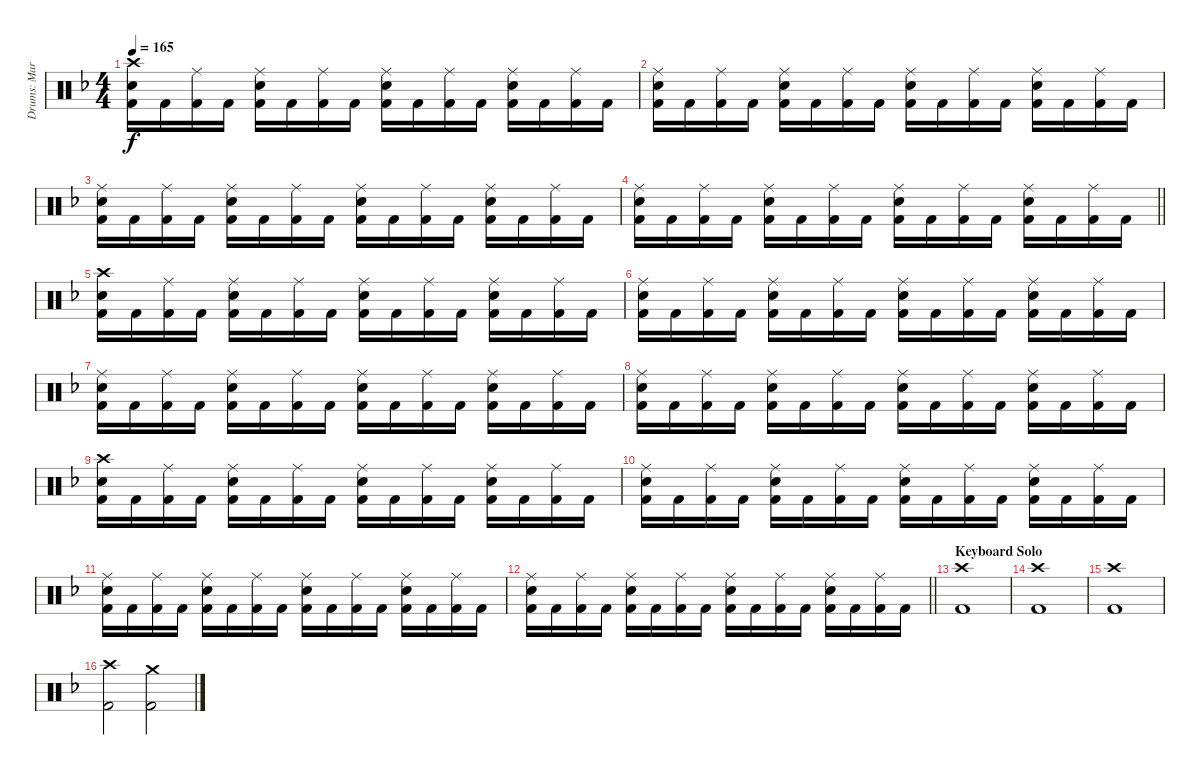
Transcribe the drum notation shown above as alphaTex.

\track ("Drums: Martin Herzinger" "Drums: Mar") {instrument percussion}
\staff {score}
\articulation defaults
\ts (4 4)
\tempo 165
\clef neutral
\ks dminor
("Crash high (hit)" "Snare (hit) 2" "Kick (hit) 2").16{dy f} "Kick (hit) 2".16 ("Ride (middle)" "Kick (hit) 2").16 "Kick (hit) 2".16 ("Ride (middle)" "Snare (hit) 2" "Kick (hit) 2").16 "Kick (hit) 2".16 ("Ride (middle)" "Kick (hit) 2").16 "Kick (hit) 2".16 ("Ride (middle)" "Snare (hit) 2" "Kick (hit) 2").16 "Kick (hit) 2".16 ("Ride (middle)" "Kick (hit) 2").16 "Kick (hit) 2".16 ("Ride (middle)" "Snare (hit) 2" "Kick (hit) 2").16 "Kick (hit) 2".16 ("Ride (middle)" "Kick (hit) 2").16 "Kick (hit) 2".16 |
("Ride (middle)" "Snare (hit) 2" "Kick (hit) 2").16 "Kick (hit) 2".16 ("Ride (middle)" "Kick (hit) 2").16 "Kick (hit) 2".16 ("Ride (middle)" "Snare (hit) 2" "Kick (hit) 2").16 "Kick (hit) 2".16 ("Ride (middle)" "Kick (hit) 2").16 "Kick (hit) 2".16 ("Ride (middle)" "Snare (hit) 2" "Kick (hit) 2").16 "Kick (hit) 2".16 ("Ride (middle)" "Kick (hit) 2").16 "Kick (hit) 2".16 ("Ride (middle)" "Snare (hit) 2" "Kick (hit) 2").16 "Kick (hit) 2".16 ("Ride (middle)" "Kick (hit) 2").16 "Kick (hit) 2".16 |
("Ride (middle)" "Snare (hit) 2" "Kick (hit) 2").16 "Kick (hit) 2".16 ("Ride (middle)" "Kick (hit) 2").16 "Kick (hit) 2".16 ("Ride (middle)" "Snare (hit) 2" "Kick (hit) 2").16 "Kick (hit) 2".16 ("Ride (middle)" "Kick (hit) 2").16 "Kick (hit) 2".16 ("Ride (middle)" "Snare (hit) 2" "Kick (hit) 2").16 "Kick (hit) 2".16 ("Ride (middle)" "Kick (hit) 2").16 "Kick (hit) 2".16 ("Ride (middle)" "Snare (hit) 2" "Kick (hit) 2").16 "Kick (hit) 2".16 ("Ride (middle)" "Kick (hit) 2").16 "Kick (hit) 2".16 |
\barLineRight lightlight
("Ride (middle)" "Snare (hit) 2" "Kick (hit) 2").16 "Kick (hit) 2".16 ("Ride (middle)" "Kick (hit) 2").16 "Kick (hit) 2".16 ("Ride (middle)" "Snare (hit) 2" "Kick (hit) 2").16 "Kick (hit) 2".16 ("Ride (middle)" "Kick (hit) 2").16 "Kick (hit) 2".16 ("Ride (middle)" "Snare (hit) 2" "Kick (hit) 2").16 "Kick (hit) 2".16 ("Ride (middle)" "Kick (hit) 2").16 "Kick (hit) 2".16 ("Ride (middle)" "Snare (hit) 2" "Kick (hit) 2").16 "Kick (hit) 2".16 ("Ride (middle)" "Kick (hit) 2").16 "Kick (hit) 2".16 |
("Crash high (hit)" "Snare (hit) 2" "Kick (hit) 2").16 "Kick (hit) 2".16 ("Ride (middle)" "Kick (hit) 2").16 "Kick (hit) 2".16 ("Ride (middle)" "Snare (hit) 2" "Kick (hit) 2").16 "Kick (hit) 2".16 ("Ride (middle)" "Kick (hit) 2").16 "Kick (hit) 2".16 ("Ride (middle)" "Snare (hit) 2" "Kick (hit) 2").16 "Kick (hit) 2".16 ("Ride (middle)" "Kick (hit) 2").16 "Kick (hit) 2".16 ("Ride (middle)" "Snare (hit) 2" "Kick (hit) 2").16 "Kick (hit) 2".16 ("Ride (middle)" "Kick (hit) 2").16 "Kick (hit) 2".16 |
("Ride (middle)" "Snare (hit) 2" "Kick (hit) 2").16 "Kick (hit) 2".16 ("Ride (middle)" "Kick (hit) 2").16 "Kick (hit) 2".16 ("Ride (middle)" "Snare (hit) 2" "Kick (hit) 2").16 "Kick (hit) 2".16 ("Ride (middle)" "Kick (hit) 2").16 "Kick (hit) 2".16 ("Ride (middle)" "Snare (hit) 2" "Kick (hit) 2").16 "Kick (hit) 2".16 ("Ride (middle)" "Kick (hit) 2").16 "Kick (hit) 2".16 ("Ride (middle)" "Snare (hit) 2" "Kick (hit) 2").16 "Kick (hit) 2".16 ("Ride (middle)" "Kick (hit) 2").16 "Kick (hit) 2".16 |
("Ride (middle)" "Snare (hit) 2" "Kick (hit) 2").16 "Kick (hit) 2".16 ("Ride (middle)" "Kick (hit) 2").16 "Kick (hit) 2".16 ("Ride (middle)" "Snare (hit) 2" "Kick (hit) 2").16 "Kick (hit) 2".16 ("Ride (middle)" "Kick (hit) 2").16 "Kick (hit) 2".16 ("Ride (middle)" "Snare (hit) 2" "Kick (hit) 2").16 "Kick (hit) 2".16 ("Ride (middle)" "Kick (hit) 2").16 "Kick (hit) 2".16 ("Ride (middle)" "Snare (hit) 2" "Kick (hit) 2").16 "Kick (hit) 2".16 ("Ride (middle)" "Kick (hit) 2").16 "Kick (hit) 2".16 |
("Ride (middle)" "Snare (hit) 2" "Kick (hit) 2").16 "Kick (hit) 2".16 ("Ride (middle)" "Kick (hit) 2").16 "Kick (hit) 2".16 ("Ride (middle)" "Snare (hit) 2" "Kick (hit) 2").16 "Kick (hit) 2".16 ("Ride (middle)" "Kick (hit) 2").16 "Kick (hit) 2".16 ("Ride (middle)" "Snare (hit) 2" "Kick (hit) 2").16 "Kick (hit) 2".16 ("Ride (middle)" "Kick (hit) 2").16 "Kick (hit) 2".16 ("Ride (middle)" "Snare (hit) 2" "Kick (hit) 2").16 "Kick (hit) 2".16 ("Ride (middle)" "Kick (hit) 2").16 "Kick (hit) 2".16 |
("Crash high (hit)" "Snare (hit) 2" "Kick (hit) 2").16 "Kick (hit) 2".16 ("Ride (middle)" "Kick (hit) 2").16 "Kick (hit) 2".16 ("Ride (middle)" "Snare (hit) 2" "Kick (hit) 2").16 "Kick (hit) 2".16 ("Ride (middle)" "Kick (hit) 2").16 "Kick (hit) 2".16 ("Ride (middle)" "Snare (hit) 2" "Kick (hit) 2").16 "Kick (hit) 2".16 ("Ride (middle)" "Kick (hit) 2").16 "Kick (hit) 2".16 ("Ride (middle)" "Snare (hit) 2" "Kick (hit) 2").16 "Kick (hit) 2".16 ("Ride (middle)" "Kick (hit) 2").16 "Kick (hit) 2".16 |
("Ride (middle)" "Snare (hit) 2" "Kick (hit) 2").16 "Kick (hit) 2".16 ("Ride (middle)" "Kick (hit) 2").16 "Kick (hit) 2".16 ("Ride (middle)" "Snare (hit) 2" "Kick (hit) 2").16 "Kick (hit) 2".16 ("Ride (middle)" "Kick (hit) 2").16 "Kick (hit) 2".16 ("Ride (middle)" "Snare (hit) 2" "Kick (hit) 2").16 "Kick (hit) 2".16 ("Ride (middle)" "Kick (hit) 2").16 "Kick (hit) 2".16 ("Ride (middle)" "Snare (hit) 2" "Kick (hit) 2").16 "Kick (hit) 2".16 ("Ride (middle)" "Kick (hit) 2").16 "Kick (hit) 2".16 |
("Ride (middle)" "Snare (hit) 2" "Kick (hit) 2").16 "Kick (hit) 2".16 ("Ride (middle)" "Kick (hit) 2").16 "Kick (hit) 2".16 ("Ride (middle)" "Snare (hit) 2" "Kick (hit) 2").16 "Kick (hit) 2".16 ("Ride (middle)" "Kick (hit) 2").16 "Kick (hit) 2".16 ("Ride (middle)" "Snare (hit) 2" "Kick (hit) 2").16 "Kick (hit) 2".16 ("Ride (middle)" "Kick (hit) 2").16 "Kick (hit) 2".16 ("Ride (middle)" "Snare (hit) 2" "Kick (hit) 2").16 "Kick (hit) 2".16 ("Ride (middle)" "Kick (hit) 2").16 "Kick (hit) 2".16 |
\barLineRight lightlight
("Ride (middle)" "Snare (hit) 2" "Kick (hit) 2").16 "Kick (hit) 2".16 ("Ride (middle)" "Kick (hit) 2").16 "Kick (hit) 2".16 ("Ride (middle)" "Snare (hit) 2" "Kick (hit) 2").16 "Kick (hit) 2".16 ("Ride (middle)" "Kick (hit) 2").16 "Kick (hit) 2".16 ("Ride (middle)" "Snare (hit) 2" "Kick (hit) 2").16 "Kick (hit) 2".16 ("Ride (middle)" "Kick (hit) 2").16 "Kick (hit) 2".16 ("Ride (middle)" "Snare (hit) 2" "Kick (hit) 2").16 "Kick (hit) 2".16 ("Ride (middle)" "Kick (hit) 2").16 "Kick (hit) 2".16 |
\section ("" "Keyboard Solo")
("Crash high (hit)" "Kick (hit) 2").1 |
("Crash high (hit)" "Kick (hit) 2").1 |
("Crash high (hit)" "Kick (hit) 2").1 |
("Crash high (hit)" "Kick (hit) 2").2 ("Crash medium (hit)" "Kick (hit) 2").2
